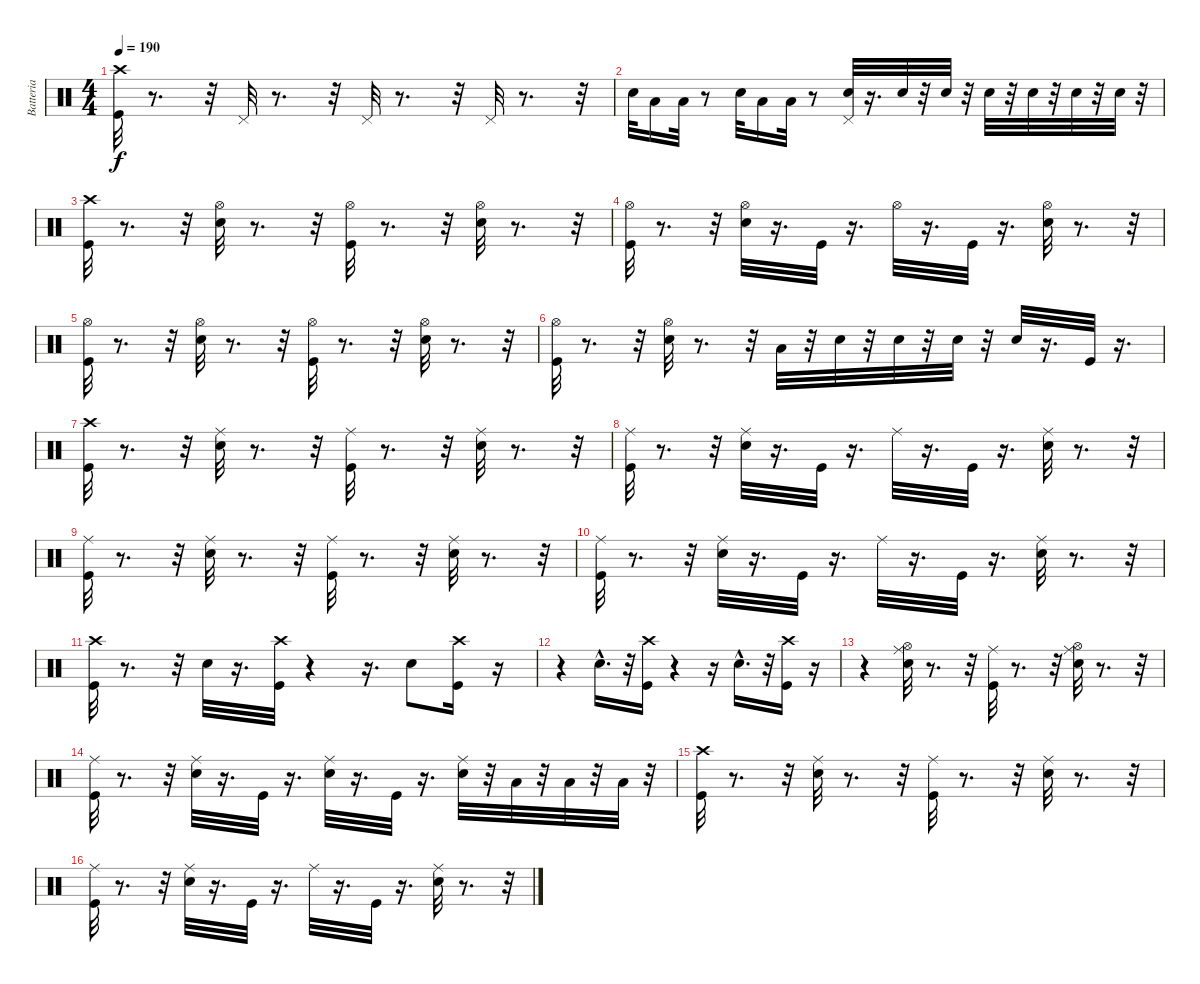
\track ("Batteria" "Batteria") {instrument percussion}
\staff {score}
\articulation defaults
\ts (4 4)
\tempo 190
\clef neutral
\ks c
("Crash high (hit)" "Kick (hit)").32{dy f} r.8{d} r.32 "Pedal Hi-Hat (hit)".32 r.8{d} r.32 "Pedal Hi-Hat (hit)".32 r.8{d} r.32 "Pedal Hi-Hat (hit)".32 r.8{d} r.32 |
"Snare (hit) 2".32 "Low Tom (hit)".16 "Low Tom (hit)".32 r.8 "Snare (hit) 2".32 "Low Tom (hit)".16 "Low Tom (hit)".32 r.8 ("Snare (hit) 2" "Pedal Hi-Hat (hit)").32 r.16{d} "Snare (hit) 2".32 r.32 "Snare (hit) 2".32 r.32 "Snare (hit) 2".32 r.32 "Snare (hit) 2".32 r.32 "Snare (hit) 2".32 r.32 "Snare (hit) 2".32 r.32 |
("Kick (hit)" "Crash high (hit)").32 r.8{d} r.32 ("Hi-Hat (open)" "Snare (hit) 2").32 r.8{d} r.32 ("Hi-Hat (open)" "Kick (hit)").32 r.8{d} r.32 ("Snare (hit) 2" "Hi-Hat (open)").32 r.8{d} r.32 |
("Kick (hit)" "Hi-Hat (open)").32 r.8{d} r.32 ("Hi-Hat (open)" "Snare (hit) 2").32 r.16{d} "Kick (hit)".32 r.16{d} "Hi-Hat (open)".32 r.16{d} "Kick (hit)".32 r.16{d} ("Hi-Hat (open)" "Snare (hit) 2").32 r.8{d} r.32 |
("Hi-Hat (open)" "Kick (hit)").32 r.8{d} r.32 ("Snare (hit) 2" "Hi-Hat (open)").32 r.8{d} r.32 ("Hi-Hat (open)" "Kick (hit)").32 r.8{d} r.32 ("Hi-Hat (open)" "Snare (hit) 2").32 r.8{d} r.32 |
("Kick (hit)" "Hi-Hat (open)").32 r.8{d} r.32 ("Snare (hit) 2" "Hi-Hat (open)").32 r.8{d} r.32 "Low Tom (hit)".32 r.32 "Snare (hit) 2".32 r.32 "Snare (hit) 2".32 r.32 "Snare (hit) 2".32 r.32 "Snare (hit) 2".32 r.16{d} "Kick (hit)".32 r.16{d} |
("Crash high (hit)" "Kick (hit)").32 r.8{d} r.32 ("Snare (hit) 2" "Ride (middle)").32 r.8{d} r.32 ("Ride (middle)" "Kick (hit)").32 r.8{d} r.32 ("Ride (middle)" "Snare (hit) 2").32 r.8{d} r.32 |
("Ride (middle)" "Kick (hit)").32 r.8{d} r.32 ("Snare (hit) 2" "Ride (middle)").32 r.16{d} "Kick (hit)".32 r.16{d} "Ride (middle)".32 r.16{d} "Kick (hit)".32 r.16{d} ("Ride (middle)" "Snare (hit) 2").32 r.8{d} r.32 |
("Ride (middle)" "Kick (hit)").32 r.8{d} r.32 ("Snare (hit) 2" "Ride (middle)").32 r.8{d} r.32 ("Ride (middle)" "Kick (hit)").32 r.8{d} r.32 ("Ride (middle)" "Snare (hit) 2").32 r.8{d} r.32 |
("Ride (middle)" "Kick (hit)").32 r.8{d} r.32 ("Snare (hit) 2" "Ride (middle)").32 r.16{d} "Kick (hit)".32 r.16{d} "Ride (middle)".32 r.16{d} "Kick (hit)".32 r.16{d} ("Ride (middle)" "Snare (hit) 2").32 r.8{d} r.32 |
("Kick (hit)" "Crash high (hit)").32 r.8{d} r.32 "Snare (hit) 2".32 r.16{d} ("Kick (hit)" "Crash high (hit)").32 r.4 r.16{d} "Snare (hit) 2".8 ("Kick (hit)" "Crash high (hit)").16 r.16 |
r.4 "Snare (hit) 2"{hac}.16{d} r.32 ("Kick (hit)" "Crash high (hit)").16 r.4 r.16 "Snare (hit) 2"{hac}.16{d} r.32 ("Kick (hit)" "Crash high (hit)").16 r.16 |
r.4 ("Hi-Hat (open)" "Ride (middle)" "Snare (hit) 2").32 r.8{d} r.32 ("Ride (middle)" "Kick (hit)").32 r.8{d} r.32 ("Hi-Hat (open)" "Ride (middle)" "Snare (hit) 2").32 r.8{d} r.32 |
("Ride (middle)" "Kick (hit)").32 r.8{d} r.32 ("Ride (middle)" "Snare (hit) 2").32 r.16{d} "Kick (hit)".32 r.16{d} ("Ride (middle)" "Snare (hit) 2").32 r.16{d} "Kick (hit)".32 r.16{d} ("Ride (middle)" "Snare (hit) 2").32 r.32 "Low Tom (hit)".32 r.32 "Low Tom (hit)".32 r.32 "Low Tom (hit)".32 r.32 |
("Crash high (hit)" "Kick (hit)").32 r.8{d} r.32 ("Snare (hit) 2" "Ride (middle)").32 r.8{d} r.32 ("Ride (middle)" "Kick (hit)").32 r.8{d} r.32 ("Ride (middle)" "Snare (hit) 2").32 r.8{d} r.32 |
("Ride (middle)" "Kick (hit)").32 r.8{d} r.32 ("Snare (hit) 2" "Ride (middle)").32 r.16{d} "Kick (hit)".32 r.16{d} "Ride (middle)".32 r.16{d} "Kick (hit)".32 r.16{d} ("Ride (middle)" "Snare (hit) 2").32 r.8{d} r.32
